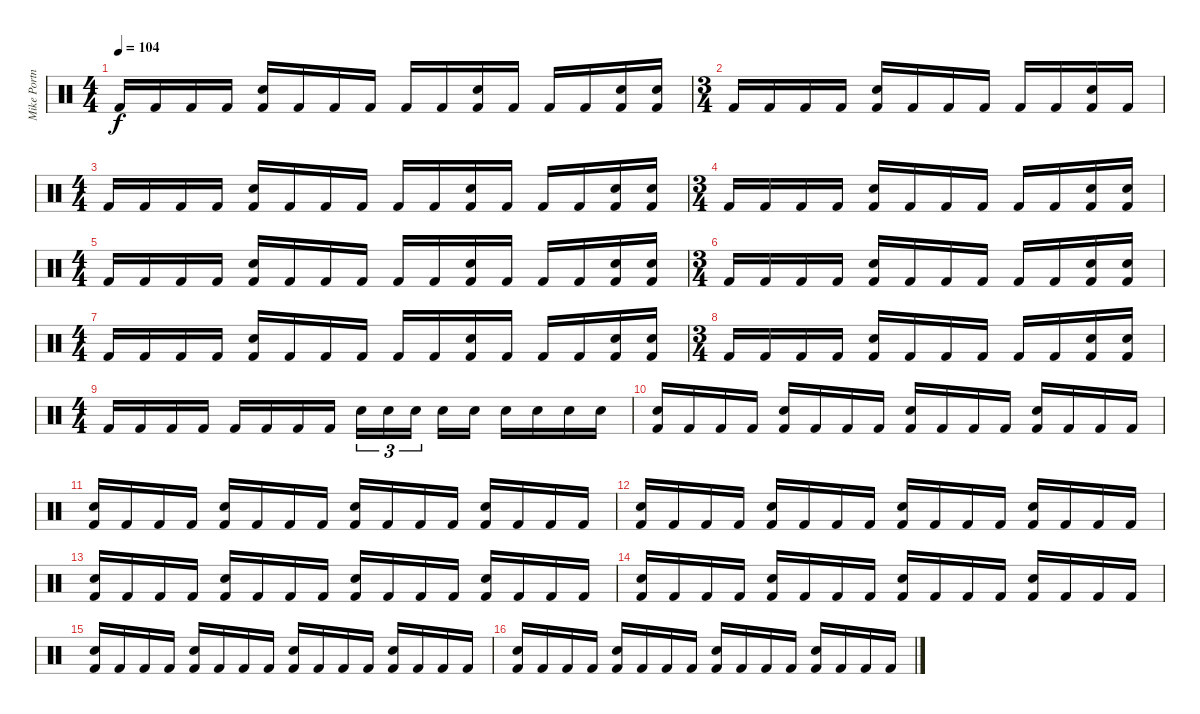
\track ("Mike Portnoy" "Mike Portn") {instrument percussion}
\staff {score}
\articulation defaults
\ts (4 4)
\tempo 104
\clef neutral
\ks c "Kick (hit) 2".16{dy f} "Kick (hit) 2".16 "Kick (hit) 2".16 "Kick (hit) 2".16
("Snare (hit) 2" "Kick (hit) 2").16 "Kick (hit) 2".16 "Kick (hit) 2".16 "Kick (hit) 2".16 "Kick (hit) 2".16 "Kick (hit) 2".16 ("Snare (hit) 2" "Kick (hit) 2").16 "Kick (hit) 2".16 "Kick (hit) 2".16 "Kick (hit) 2".16 ("Snare (hit) 2" "Kick (hit) 2").16 ("Snare (hit) 2" "Kick (hit) 2").16 |
\ts (3 4)
"Kick (hit) 2".16 "Kick (hit) 2".16 "Kick (hit) 2".16 "Kick (hit) 2".16 ("Snare (hit) 2" "Kick (hit) 2").16 "Kick (hit) 2".16 "Kick (hit) 2".16 "Kick (hit) 2".16 "Kick (hit) 2".16 "Kick (hit) 2".16 ("Snare (hit) 2" "Kick (hit) 2").16 "Kick (hit) 2".16 |
\ts (4 4)
"Kick (hit) 2".16 "Kick (hit) 2".16 "Kick (hit) 2".16 "Kick (hit) 2".16 ("Snare (hit) 2" "Kick (hit) 2").16 "Kick (hit) 2".16 "Kick (hit) 2".16 "Kick (hit) 2".16 "Kick (hit) 2".16 "Kick (hit) 2".16 ("Snare (hit) 2" "Kick (hit) 2").16 "Kick (hit) 2".16 "Kick (hit) 2".16 "Kick (hit) 2".16 ("Snare (hit) 2" "Kick (hit) 2").16 ("Snare (hit) 2" "Kick (hit) 2").16 |
\ts (3 4)
"Kick (hit) 2".16 "Kick (hit) 2".16 "Kick (hit) 2".16 "Kick (hit) 2".16 ("Snare (hit) 2" "Kick (hit) 2").16 "Kick (hit) 2".16 "Kick (hit) 2".16 "Kick (hit) 2".16 "Kick (hit) 2".16 "Kick (hit) 2".16 ("Snare (hit) 2" "Kick (hit) 2").16 ("Snare (hit) 2" "Kick (hit) 2").16 |
\ts (4 4)
"Kick (hit) 2".16 "Kick (hit) 2".16 "Kick (hit) 2".16 "Kick (hit) 2".16 ("Snare (hit) 2" "Kick (hit) 2").16 "Kick (hit) 2".16 "Kick (hit) 2".16 "Kick (hit) 2".16 "Kick (hit) 2".16 "Kick (hit) 2".16 ("Snare (hit) 2" "Kick (hit) 2").16 "Kick (hit) 2".16 "Kick (hit) 2".16 "Kick (hit) 2".16 ("Snare (hit) 2" "Kick (hit) 2").16 ("Snare (hit) 2" "Kick (hit) 2").16 |
\ts (3 4)
"Kick (hit) 2".16 "Kick (hit) 2".16 "Kick (hit) 2".16 "Kick (hit) 2".16 ("Snare (hit) 2" "Kick (hit) 2").16 "Kick (hit) 2".16 "Kick (hit) 2".16 "Kick (hit) 2".16 "Kick (hit) 2".16 "Kick (hit) 2".16 ("Snare (hit) 2" "Kick (hit) 2").16 ("Snare (hit) 2" "Kick (hit) 2").16 |
\ts (4 4)
"Kick (hit) 2".16 "Kick (hit) 2".16 "Kick (hit) 2".16 "Kick (hit) 2".16 ("Snare (hit) 2" "Kick (hit) 2").16 "Kick (hit) 2".16 "Kick (hit) 2".16 "Kick (hit) 2".16 "Kick (hit) 2".16 "Kick (hit) 2".16 ("Snare (hit) 2" "Kick (hit) 2").16 "Kick (hit) 2".16 "Kick (hit) 2".16 "Kick (hit) 2".16 ("Snare (hit) 2" "Kick (hit) 2").16 ("Snare (hit) 2" "Kick (hit) 2").16 |
\ts (3 4)
"Kick (hit) 2".16 "Kick (hit) 2".16 "Kick (hit) 2".16 "Kick (hit) 2".16 ("Snare (hit) 2" "Kick (hit) 2").16 "Kick (hit) 2".16 "Kick (hit) 2".16 "Kick (hit) 2".16 "Kick (hit) 2".16 "Kick (hit) 2".16 ("Snare (hit) 2" "Kick (hit) 2").16 ("Snare (hit) 2" "Kick (hit) 2").16 |
\ts (4 4)
"Kick (hit) 2".16 "Kick (hit) 2".16 "Kick (hit) 2".16 "Kick (hit) 2".16 "Kick (hit) 2".16 "Kick (hit) 2".16 "Kick (hit) 2".16 "Kick (hit) 2".16 "Snare (hit) 2".16{tu (3 2)} "Snare (hit) 2".16{tu (3 2)} "Snare (hit) 2".16{tu (3 2)} "Snare (hit) 2".16 "Snare (hit) 2".16 "Snare (hit) 2".16 "Snare (hit) 2".16 "Snare (hit) 2".16 "Snare (hit) 2".16 |
("Snare (hit) 2" "Kick (hit) 2").16 "Kick (hit) 2".16 "Kick (hit) 2".16 "Kick (hit) 2".16 ("Snare (hit) 2" "Kick (hit) 2").16 "Kick (hit) 2".16 "Kick (hit) 2".16 "Kick (hit) 2".16 ("Snare (hit) 2" "Kick (hit) 2").16 "Kick (hit) 2".16 "Kick (hit) 2".16 "Kick (hit) 2".16 ("Snare (hit) 2" "Kick (hit) 2").16 "Kick (hit) 2".16 "Kick (hit) 2".16 "Kick (hit) 2".16 |
("Snare (hit) 2" "Kick (hit) 2").16 "Kick (hit) 2".16 "Kick (hit) 2".16 "Kick (hit) 2".16 ("Snare (hit) 2" "Kick (hit) 2").16 "Kick (hit) 2".16 "Kick (hit) 2".16 "Kick (hit) 2".16 ("Snare (hit) 2" "Kick (hit) 2").16 "Kick (hit) 2".16 "Kick (hit) 2".16 "Kick (hit) 2".16 ("Snare (hit) 2" "Kick (hit) 2").16 "Kick (hit) 2".16 "Kick (hit) 2".16 "Kick (hit) 2".16 |
("Snare (hit) 2" "Kick (hit) 2").16 "Kick (hit) 2".16 "Kick (hit) 2".16 "Kick (hit) 2".16 ("Snare (hit) 2" "Kick (hit) 2").16 "Kick (hit) 2".16 "Kick (hit) 2".16 "Kick (hit) 2".16 ("Snare (hit) 2" "Kick (hit) 2").16 "Kick (hit) 2".16 "Kick (hit) 2".16 "Kick (hit) 2".16 ("Snare (hit) 2" "Kick (hit) 2").16 "Kick (hit) 2".16 "Kick (hit) 2".16 "Kick (hit) 2".16 |
("Snare (hit) 2" "Kick (hit) 2").16 "Kick (hit) 2".16 "Kick (hit) 2".16 "Kick (hit) 2".16 ("Snare (hit) 2" "Kick (hit) 2").16 "Kick (hit) 2".16 "Kick (hit) 2".16 "Kick (hit) 2".16 ("Snare (hit) 2" "Kick (hit) 2").16 "Kick (hit) 2".16 "Kick (hit) 2".16 "Kick (hit) 2".16 ("Snare (hit) 2" "Kick (hit) 2").16 "Kick (hit) 2".16 "Kick (hit) 2".16 "Kick (hit) 2".16 |
("Snare (hit) 2" "Kick (hit) 2").16 "Kick (hit) 2".16 "Kick (hit) 2".16 "Kick (hit) 2".16 ("Snare (hit) 2" "Kick (hit) 2").16 "Kick (hit) 2".16 "Kick (hit) 2".16 "Kick (hit) 2".16 ("Snare (hit) 2" "Kick (hit) 2").16 "Kick (hit) 2".16 "Kick (hit) 2".16 "Kick (hit) 2".16 ("Snare (hit) 2" "Kick (hit) 2").16 "Kick (hit) 2".16 "Kick (hit) 2".16 "Kick (hit) 2".16 |
("Snare (hit) 2" "Kick (hit) 2").16 "Kick (hit) 2".16 "Kick (hit) 2".16 "Kick (hit) 2".16 ("Snare (hit) 2" "Kick (hit) 2").16 "Kick (hit) 2".16 "Kick (hit) 2".16 "Kick (hit) 2".16 ("Snare (hit) 2" "Kick (hit) 2").16 "Kick (hit) 2".16 "Kick (hit) 2".16 "Kick (hit) 2".16 ("Snare (hit) 2" "Kick (hit) 2").16 "Kick (hit) 2".16 "Kick (hit) 2".16 "Kick (hit) 2".16 |
("Snare (hit) 2" "Kick (hit) 2").16 "Kick (hit) 2".16 "Kick (hit) 2".16 "Kick (hit) 2".16 ("Snare (hit) 2" "Kick (hit) 2").16 "Kick (hit) 2".16 "Kick (hit) 2".16 "Kick (hit) 2".16 ("Snare (hit) 2" "Kick (hit) 2").16 "Kick (hit) 2".16 "Kick (hit) 2".16 "Kick (hit) 2".16 ("Snare (hit) 2" "Kick (hit) 2").16 "Kick (hit) 2".16 "Kick (hit) 2".16 "Kick (hit) 2".16
